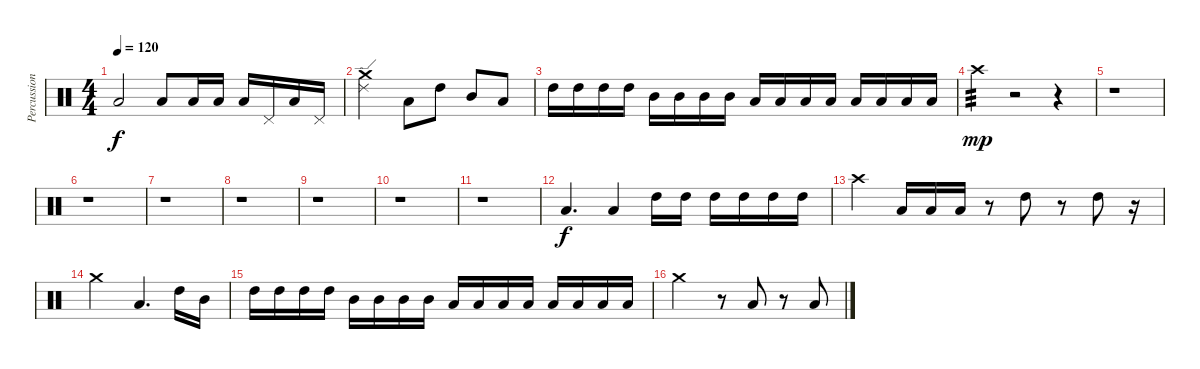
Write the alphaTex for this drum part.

\track ("Percussion" "Percussion") {instrument percussion}
\staff {score}
\articulation defaults
\ts (4 4)
\tempo 120
\clef neutral
\ks c "Low Tom (hit)".2{dy f} "Low Tom (hit)".8 "Low Tom (hit)".16 "Low Tom (hit)".16 "Low Tom (hit)".16 "Pedal Hi-Hat (hit)".16 "Low Tom (hit)".16 "Pedal Hi-Hat (hit)".16
|
("Crash medium (hit)" "Ride (edge) 2").2 "Low Tom (hit)".8 "High Tom (hit)".8 "Mid Tom (hit)".8 "Low Tom (hit)".8 |
"High Tom (hit)".16 "High Tom (hit)".16 "High Tom (hit)".16 "High Tom (hit)".16 "Mid Tom (hit)".16 "Mid Tom (hit)".16 "Mid Tom (hit)".16 "Mid Tom (hit)".16 "Low Tom (hit)".16 "Low Tom (hit)".16 "Low Tom (hit)".16 "Low Tom (hit)".16 "Low Floor Tom (hit)".16 "Low Floor Tom (hit)".16 "Low Floor Tom (hit)".16 "Low Floor Tom (hit)".16 |
"Crash high (hit)".4{tp 3 dy mp} r.2 r.4 |
r.1 |
r.1 |
r.1 |
r.1 |
r.1 |
r.1 |
r.1 |
"Low Tom (hit)".4{d dy f} "Low Tom (hit)".4 "High Tom (hit)".16 "High Tom (hit)".16 "High Tom (hit)".16 "High Tom (hit)".16 "High Tom (hit)".16 "High Tom (hit)".16 |
"Crash high (hit)".4 "Low Tom (hit)".16 "Low Tom (hit)".16 "Low Tom (hit)".16 r.8 "High Tom (hit)".8 r.8 "High Tom (hit)".8 r.16 |
"Crash medium (hit)".2 "Low Tom (hit)".4{d} "High Tom (hit)".16 "Mid Tom (hit)".16 |
"High Tom (hit)".16 "High Tom (hit)".16 "High Tom (hit)".16 "High Tom (hit)".16 "Mid Tom (hit)".16 "Mid Tom (hit)".16 "Mid Tom (hit)".16 "Mid Tom (hit)".16 "Low Tom (hit)".16 "Low Tom (hit)".16 "Low Tom (hit)".16 "Low Tom (hit)".16 "Low Floor Tom (hit)".16 "Low Floor Tom (hit)".16 "Low Floor Tom (hit)".16 "Low Floor Tom (hit)".16 |
"Crash medium (hit)".2 r.8 "Low Tom (hit)".8 r.8 "Low Tom (hit)".8
